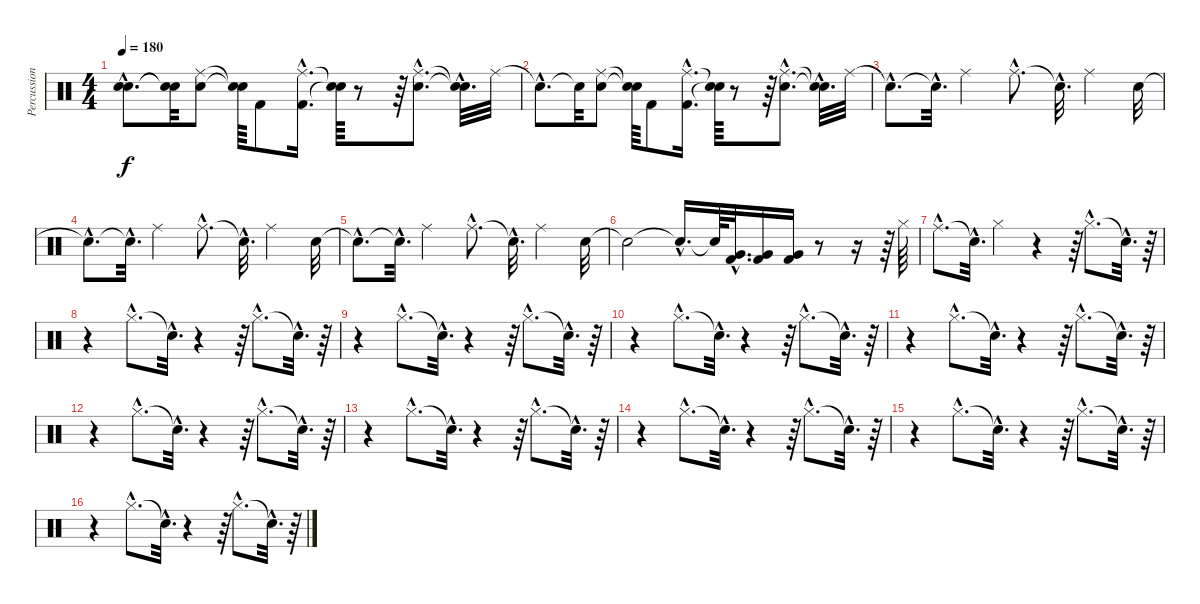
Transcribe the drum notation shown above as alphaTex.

\track ("Percussion" "Percussion") {instrument percussion}
\staff {score}
\articulation defaults
\ts (4 4)
\tempo 180
\clef neutral
\ks c
("Snare (hit)"{hac t} "Snare (hit)"{hac t}).8{d dy f} ("Snare (hit)"{t} "Snare (hit)"{t}).32 ("Ride (middle)" "Snare (hit) 2").8 ("Snare (hit)"{t} "Snare (hit)"{t}).64 "Kick (hit) 2".8 ("Ride (middle)"{hac} "Kick (hit) 2"{hac}).16{d} ("Snare (hit)"{t} "Snare (hit)"{t}).64 r.8 r.64 ("Ride (middle)"{hac} "Snare (hit) 2"{hac}).8{d} ("Snare (hit)"{hac t} "Snare (hit)"{hac t}).32{d} "Ride (middle)".32 |
"Snare (hit)"{hac t}.8{d} "Snare (hit)"{t}.32 ("Ride (middle)" "Snare (hit) 2").8 ("Snare (hit)"{t} "Snare (hit)"{t}).64 "Kick (hit) 2".8 ("Ride (middle)"{hac} "Kick (hit) 2"{hac}).16{d} ("Snare (hit)"{t} "Snare (hit)"{t}).64 r.8 r.64 ("Ride (middle)"{hac} "Snare (hit) 2"{hac}).8{d} ("Snare (hit)"{hac t} "Snare (hit)"{hac t}).32{d} "Ride (middle)".32 |
"Snare (hit)"{hac t}.8{d} "Snare (hit)"{hac t}.32{d} "Ride (middle)".4 "Ride (middle)"{hac}.8{d} "Snare (hit)"{hac t}.32{d} "Ride (middle)".4 "Snare (hit) 2".32 |
"Snare (hit)"{hac t}.8{d} "Snare (hit)"{hac t}.32{d} "Ride (middle)".4 "Ride (middle)"{hac}.8{d} "Snare (hit)"{hac t}.32{d} "Ride (middle)".4 "Snare (hit) 2".32 |
"Snare (hit)"{hac t}.8{d} "Snare (hit)"{hac t}.32{d} "Ride (middle)".4 "Ride (middle)"{hac}.8{d} "Snare (hit)"{hac t}.32{d} "Ride (middle)".4 "Snare (hit) 2".32 |
"Snare (hit)"{t}.2 "Snare (hit)"{hac t}.16{d} "Snare (hit)"{t}.64 ("Kick (hit) 2"{hac} "Very Low Tom (hit)"{hac}).32{d} ("Kick (hit) 2" "Very Low Tom (hit)").16 ("Very Low Tom (hit)" "Kick (hit) 2").16 r.8 r.16 r.64 "Hi-Hat (closed)".64 |
"Ride (middle)"{hac}.8{d} "Snare (hit)"{hac t}.32{d} "Hi-Hat (closed)".4 r.4 r.64 "Hi-Hat (closed)"{hac}.8{d} "Snare (hit)"{hac t}.32{d} r.64 |
r.4 "Hi-Hat (closed)"{hac}.8{d} "Snare (hit)"{hac t}.32{d} r.4 r.64 "Hi-Hat (closed)"{hac}.8{d} "Snare (hit)"{hac t}.32{d} r.64 |
r.4 "Hi-Hat (closed)"{hac}.8{d} "Snare (hit)"{hac t}.32{d} r.4 r.64 "Hi-Hat (closed)"{hac}.8{d} "Snare (hit)"{hac t}.32{d} r.64 |
r.4 "Hi-Hat (closed)"{hac}.8{d} "Snare (hit)"{hac t}.32{d} r.4 r.64 "Hi-Hat (closed)"{hac}.8{d} "Snare (hit)"{hac t}.32{d} r.64 |
r.4 "Hi-Hat (closed)"{hac}.8{d} "Snare (hit)"{hac t}.32{d} r.4 r.64 "Hi-Hat (closed)"{hac}.8{d} "Snare (hit)"{hac t}.32{d} r.64 |
r.4 "Hi-Hat (closed)"{hac}.8{d} "Snare (hit)"{hac t}.32{d} r.4 r.64 "Hi-Hat (closed)"{hac}.8{d} "Snare (hit)"{hac t}.32{d} r.64 |
r.4 "Hi-Hat (closed)"{hac}.8{d} "Snare (hit)"{hac t}.32{d} r.4 r.64 "Hi-Hat (closed)"{hac}.8{d} "Snare (hit)"{hac t}.32{d} r.64 |
r.4 "Hi-Hat (closed)"{hac}.8{d} "Snare (hit)"{hac t}.32{d} r.4 r.64 "Hi-Hat (closed)"{hac}.8{d} "Snare (hit)"{hac t}.32{d} r.64 |
r.4 "Hi-Hat (closed)"{hac}.8{d} "Snare (hit)"{hac t}.32{d} r.4 r.64 "Hi-Hat (closed)"{hac}.8{d} "Snare (hit)"{hac t}.32{d} r.64 |
r.4 "Hi-Hat (closed)"{hac}.8{d} "Snare (hit)"{hac t}.32{d} r.4 r.64 "Hi-Hat (closed)"{hac}.8{d} "Snare (hit)"{hac t}.32{d} r.64
